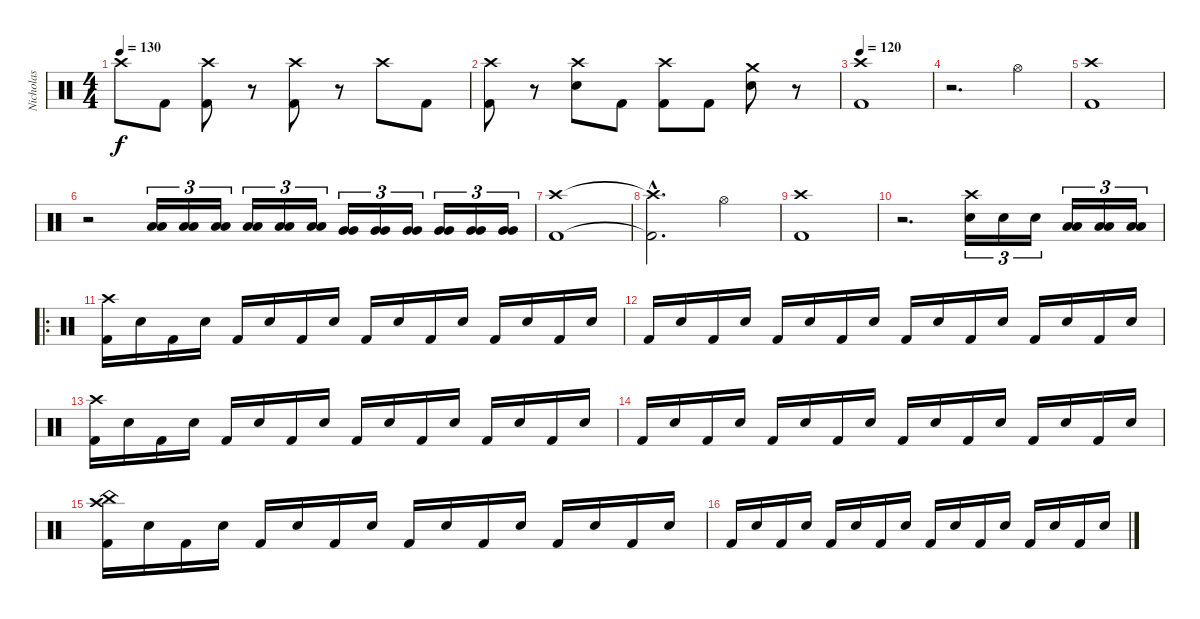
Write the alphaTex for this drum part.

\track ("Nicholas" "Nicholas") {instrument percussion}
\staff {score}
\articulation defaults
\ts (4 4)
\tempo 130
\clef neutral
\ks c "Crash high (hit)".8{dy f} "Kick (hit) 2".8
("Crash high (hit)" "Kick (hit) 2").8 r.8 ("Crash high (hit)" "Kick (hit) 2").8 r.8 "Crash high (hit)".8 "Kick (hit) 2".8 |
("Crash high (hit)" "Kick (hit) 2").8 r.8 ("Crash high (hit)" "Electric Snare (hit)").8 "Kick (hit) 2".8 ("Crash high (hit)" "Kick (hit) 2").8 "Kick (hit) 2".8 ("Crash medium (hit)" "Electric Snare (hit)").8 r.8 |
\tempo 120
("Kick (hit) 2" "Crash high (hit)").1 |
r.2{d} "Hi-Hat (open)".4 |
("Kick (hit) 2" "Crash high (hit)").1 |
r.2 ("Low Tom (hit)" "Low Tom (hit)").16{tu (3 2)} ("Low Tom (hit)" "Low Tom (hit)").16{tu (3 2)} ("Low Tom (hit)" "Low Tom (hit)").16{tu (3 2)} ("Low Tom (hit)" "Low Tom (hit)").16{tu (3 2)} ("Low Tom (hit)" "Low Tom (hit)").16{tu (3 2)} ("Low Tom (hit)" "Low Tom (hit)").16{tu (3 2)} ("Very Low Tom (hit)" "Very Low Tom (hit)").16{tu (3 2)} ("Very Low Tom (hit)" "Very Low Tom (hit)").16{tu (3 2)} ("Very Low Tom (hit)" "Very Low Tom (hit)").16{tu (3 2)} ("Very Low Tom (hit)" "Very Low Tom (hit)").16{tu (3 2)} ("Very Low Tom (hit)" "Very Low Tom (hit)").16{tu (3 2)} ("Very Low Tom (hit)" "Very Low Tom (hit)").16{tu (3 2)} |
("Kick (hit) 2" "Crash high (hit)").1 |
("Kick (hit) 2"{hac t} "Crash high (hit)"{hac t}).2{d} "Hi-Hat (open)".4 |
("Crash high (hit)" "Kick (hit) 2").1 |
r.2{d} ("Electric Snare (hit)" "Crash high (hit)").16{tu (3 2)} "Electric Snare (hit)".16{tu (3 2)} "Electric Snare (hit)".16{tu (3 2)} ("Low Tom (hit)" "Low Tom (hit)").16{tu (3 2)} ("Low Tom (hit)" "Low Tom (hit)").16{tu (3 2)} ("Low Tom (hit)" "Low Tom (hit)").16{tu (3 2)} |
\ro
("Crash high (hit)" "Kick (hit) 2").16 "Electric Snare (hit)".16 "Kick (hit) 2".16 "Electric Snare (hit)".16 "Kick (hit) 2".16 "Electric Snare (hit)".16 "Kick (hit) 2".16 "Electric Snare (hit)".16 "Kick (hit) 2".16 "Electric Snare (hit)".16 "Kick (hit) 2".16 "Electric Snare (hit)".16 "Kick (hit) 2".16 "Electric Snare (hit)".16 "Kick (hit) 2".16 "Electric Snare (hit)".16 |
"Kick (hit) 2".16 "Electric Snare (hit)".16 "Kick (hit) 2".16 "Electric Snare (hit)".16 "Kick (hit) 2".16 "Electric Snare (hit)".16 "Kick (hit) 2".16 "Electric Snare (hit)".16 "Kick (hit) 2".16 "Electric Snare (hit)".16 "Kick (hit) 2".16 "Electric Snare (hit)".16 "Kick (hit) 2".16 "Electric Snare (hit)".16 "Kick (hit) 2".16 "Electric Snare (hit)".16 |
("Crash high (hit)" "Kick (hit) 2").16 "Electric Snare (hit)".16 "Kick (hit) 2".16 "Electric Snare (hit)".16 "Kick (hit) 2".16 "Electric Snare (hit)".16 "Kick (hit) 2".16 "Electric Snare (hit)".16 "Kick (hit) 2".16 "Electric Snare (hit)".16 "Kick (hit) 2".16 "Electric Snare (hit)".16 "Kick (hit) 2".16 "Electric Snare (hit)".16 "Kick (hit) 2".16 "Electric Snare (hit)".16 |
"Kick (hit) 2".16 "Electric Snare (hit)".16 "Kick (hit) 2".16 "Electric Snare (hit)".16 "Kick (hit) 2".16 "Electric Snare (hit)".16 "Kick (hit) 2".16 "Electric Snare (hit)".16 "Kick (hit) 2".16 "Electric Snare (hit)".16 "Kick (hit) 2".16 "Electric Snare (hit)".16 "Kick (hit) 2".16 "Electric Snare (hit)".16 "Kick (hit) 2".16 "Electric Snare (hit)".16 |
("China (hit)" "Crash high (hit)" "Kick (hit) 2").16 "Electric Snare (hit)".16 "Kick (hit) 2".16 "Electric Snare (hit)".16 "Kick (hit) 2".16 "Electric Snare (hit)".16 "Kick (hit) 2".16 "Electric Snare (hit)".16 "Kick (hit) 2".16 "Electric Snare (hit)".16 "Kick (hit) 2".16 "Electric Snare (hit)".16 "Kick (hit) 2".16 "Electric Snare (hit)".16 "Kick (hit) 2".16 "Electric Snare (hit)".16 |
"Kick (hit) 2".16 "Electric Snare (hit)".16 "Kick (hit) 2".16 "Electric Snare (hit)".16 "Kick (hit) 2".16 "Electric Snare (hit)".16 "Kick (hit) 2".16 "Electric Snare (hit)".16 "Kick (hit) 2".16 "Electric Snare (hit)".16 "Kick (hit) 2".16 "Electric Snare (hit)".16 "Kick (hit) 2".16 "Electric Snare (hit)".16 "Kick (hit) 2".16 "Electric Snare (hit)".16
